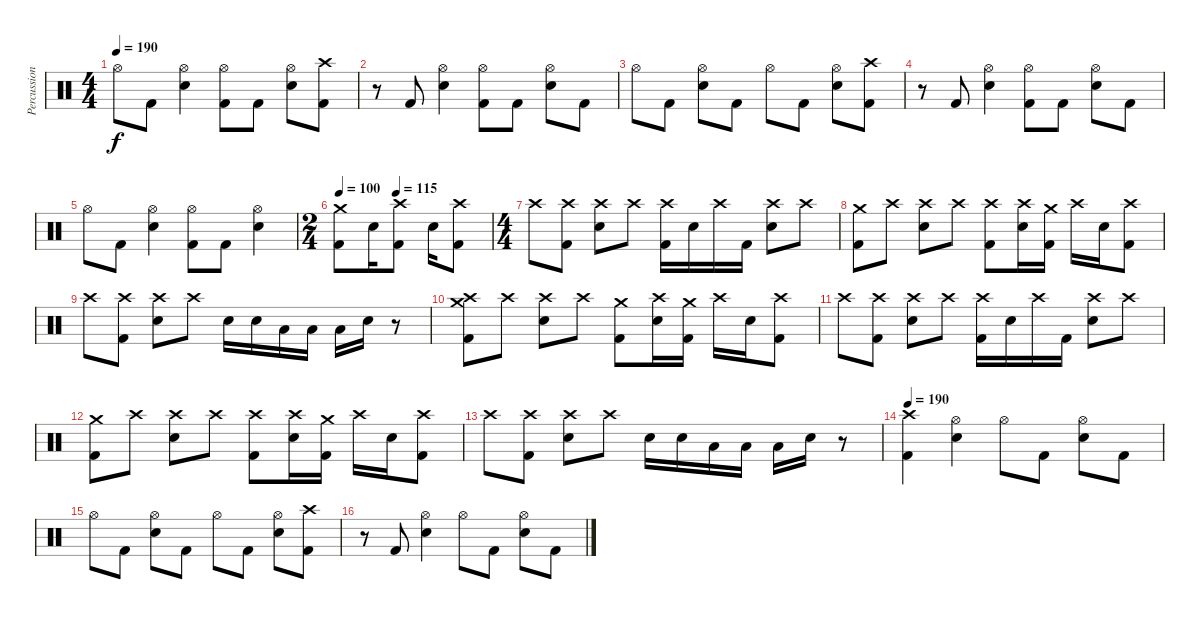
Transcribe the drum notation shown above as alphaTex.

\track ("Percussion" "Percussion") {instrument percussion}
\staff {score}
\articulation defaults
\ts (4 4)
\tempo 190
\clef neutral
\ks c "Hi-Hat (open)".8{dy f} "Kick (hit) 2".8
("Hi-Hat (open)" "Electric Snare (hit)").4 ("Hi-Hat (open)" "Kick (hit) 2").8 "Kick (hit) 2".8 ("Hi-Hat (open)" "Electric Snare (hit)").8 ("Crash high (hit)" "Kick (hit) 2").8 |
r.8 "Kick (hit) 2".8 ("Hi-Hat (open)" "Electric Snare (hit)").4 ("Hi-Hat (open)" "Kick (hit) 2").8 "Kick (hit) 2".8 ("Hi-Hat (open)" "Electric Snare (hit)").8 "Kick (hit) 2".8 |
"Hi-Hat (open)".8 "Kick (hit) 2".8 ("Hi-Hat (open)" "Electric Snare (hit)").8 "Kick (hit) 2".8 "Hi-Hat (open)".8 "Kick (hit) 2".8 ("Hi-Hat (open)" "Electric Snare (hit)").8 ("Crash high (hit)" "Kick (hit) 2").8 |
r.8 "Kick (hit) 2".8 ("Hi-Hat (open)" "Electric Snare (hit)").4 ("Hi-Hat (open)" "Kick (hit) 2").8 "Kick (hit) 2".8 ("Hi-Hat (open)" "Electric Snare (hit)").8 "Kick (hit) 2".8 |
"Hi-Hat (open)".8 "Kick (hit) 2".8 ("Hi-Hat (open)" "Electric Snare (hit)").4 ("Hi-Hat (open)" "Kick (hit) 2").8 "Kick (hit) 2".8 ("Hi-Hat (open)" "Electric Snare (hit)").4 |
\ts (2 4)
\tempo 100
\tempo (115 0.375)
("Crash medium (hit)" "Kick (hit) 2").8 "Electric Snare (hit)".16 ("Crash high (hit)" "Kick (hit) 2").8 "Electric Snare (hit)".16 ("Crash high (hit)" "Kick (hit) 2").8 |
\ts (4 4)
"Crash high (hit)".8 ("Crash high (hit)" "Kick (hit) 2").8 ("Crash high (hit)" "Electric Snare (hit)").8 "Crash high (hit)".8 ("Crash high (hit)" "Kick (hit) 2").16 "Electric Snare (hit)".16 "Crash high (hit)".16 "Kick (hit) 2".16 ("Crash high (hit)" "Electric Snare (hit)").8 "Crash high (hit)".8 |
("Crash medium (hit)" "Kick (hit) 2").8 "Crash high (hit)".8 ("Crash high (hit)" "Electric Snare (hit)").8 "Crash high (hit)".8 ("Crash high (hit)" "Kick (hit) 2").8 ("Crash high (hit)" "Electric Snare (hit)").16 ("Crash medium (hit)" "Kick (hit) 2").16 "Crash high (hit)".16 "Electric Snare (hit)".16 ("Crash high (hit)" "Kick (hit) 2").8 |
"Crash high (hit)".8 ("Crash high (hit)" "Kick (hit) 2").8 ("Crash high (hit)" "Electric Snare (hit)").8 "Crash high (hit)".8 "Electric Snare (hit)".16 "Electric Snare (hit)".16 "Low Tom (hit)".16 "Low Floor Tom (hit)".16 "Low Floor Tom (hit)".16 "Electric Snare (hit)".16 r.8 |
("Crash high (hit)" "Crash medium (hit)" "Kick (hit) 2").8 "Crash high (hit)".8 ("Crash high (hit)" "Electric Snare (hit)").8 "Crash high (hit)".8 ("Crash medium (hit)" "Kick (hit) 2").8 ("Crash high (hit)" "Electric Snare (hit)").16 ("Crash medium (hit)" "Kick (hit) 2").16 "Crash high (hit)".16 "Electric Snare (hit)".16 ("Crash high (hit)" "Kick (hit) 2").8 |
"Crash high (hit)".8 ("Crash high (hit)" "Kick (hit) 2").8 ("Crash high (hit)" "Electric Snare (hit)").8 "Crash high (hit)".8 ("Crash high (hit)" "Kick (hit) 2").16 "Electric Snare (hit)".16 "Crash high (hit)".16 "Kick (hit) 2".16 ("Crash high (hit)" "Electric Snare (hit)").8 "Crash high (hit)".8 |
("Crash medium (hit)" "Kick (hit) 2").8 "Crash high (hit)".8 ("Crash high (hit)" "Electric Snare (hit)").8 "Crash high (hit)".8 ("Crash high (hit)" "Kick (hit) 2").8 ("Crash high (hit)" "Electric Snare (hit)").16 ("Crash medium (hit)" "Kick (hit) 2").16 "Crash high (hit)".16 "Electric Snare (hit)".16 ("Crash high (hit)" "Kick (hit) 2").8 |
"Crash high (hit)".8 ("Crash high (hit)" "Kick (hit) 2").8 ("Crash high (hit)" "Electric Snare (hit)").8 "Crash high (hit)".8 "Electric Snare (hit)".16 "Electric Snare (hit)".16 "Low Tom (hit)".16 "Low Floor Tom (hit)".16 "Low Floor Tom (hit)".16 "Electric Snare (hit)".16 r.8 |
\tempo 190
("Crash high (hit)" "Kick (hit) 2").4 ("Hi-Hat (open)" "Electric Snare (hit)").4 "Hi-Hat (open)".8 "Kick (hit) 2".8 ("Hi-Hat (open)" "Electric Snare (hit)").8 "Kick (hit) 2".8 |
"Hi-Hat (open)".8 "Kick (hit) 2".8 ("Hi-Hat (open)" "Electric Snare (hit)").8 "Kick (hit) 2".8 "Hi-Hat (open)".8 "Kick (hit) 2".8 ("Hi-Hat (open)" "Electric Snare (hit)").8 ("Crash high (hit)" "Kick (hit) 2").8 |
r.8 "Kick (hit) 2".8 ("Hi-Hat (open)" "Electric Snare (hit)").4 "Hi-Hat (open)".8 "Kick (hit) 2".8 ("Hi-Hat (open)" "Electric Snare (hit)").8 "Kick (hit) 2".8
